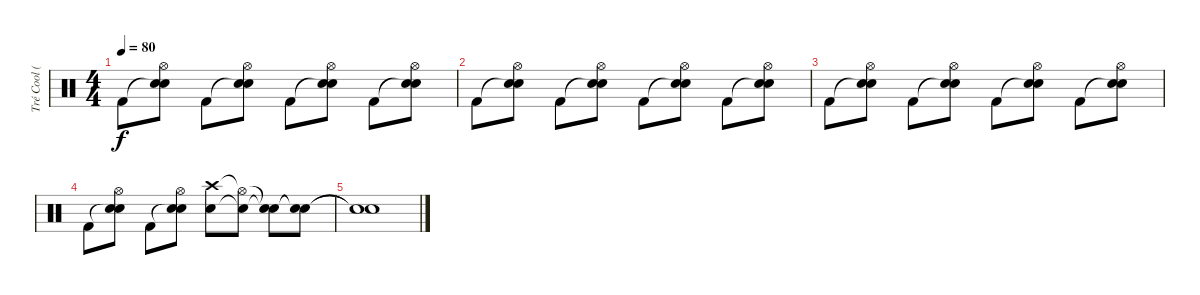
\track ("Tré Cool (Drums)" "Tré Cool (") {instrument percussion}
\staff {score}
\articulation defaults
\ts (4 4)
\tempo 80
\clef neutral
\ks c "Kick (hit) 2".8{dy f}
("Snare (hit)"{t} "Electric Snare (hit)" "Hi-Hat (open)").8 "Kick (hit) 2".8 ("Snare (hit)"{t} "Electric Snare (hit)" "Hi-Hat (open)").8 "Kick (hit) 2".8 ("Snare (hit)"{t} "Electric Snare (hit)" "Hi-Hat (open)").8 "Kick (hit) 2".8 ("Snare (hit)"{t} "Electric Snare (hit)" "Hi-Hat (open)").8 |
"Kick (hit) 2".8 ("Snare (hit)"{t} "Electric Snare (hit)" "Hi-Hat (open)").8 "Kick (hit) 2".8 ("Snare (hit)"{t} "Electric Snare (hit)" "Hi-Hat (open)").8 "Kick (hit) 2".8 ("Snare (hit)"{t} "Electric Snare (hit)" "Hi-Hat (open)").8 "Kick (hit) 2".8 ("Snare (hit)"{t} "Electric Snare (hit)" "Hi-Hat (open)").8 |
"Kick (hit) 2".8 ("Snare (hit)"{t} "Electric Snare (hit)" "Hi-Hat (open)").8 "Kick (hit) 2".8 ("Snare (hit)"{t} "Electric Snare (hit)" "Hi-Hat (open)").8 "Kick (hit) 2".8 ("Snare (hit)"{t} "Electric Snare (hit)" "Hi-Hat (open)").8 "Kick (hit) 2".8 ("Snare (hit)"{t} "Electric Snare (hit)" "Hi-Hat (open)").8 |
"Kick (hit) 2".8 ("Snare (hit)"{t} "Electric Snare (hit)" "Hi-Hat (open)").8 "Kick (hit) 2".8 ("Snare (hit)"{t} "Electric Snare (hit)" "Hi-Hat (open)").8 ("Electric Snare (hit)" "Crash high (hit)").8 ("Electric Snare (hit)"{t} "Hi-Hat (open)"{t}).8 ("Snare (hit)"{t} "Snare (hit)"{t}).8 ("Snare (hit)"{t} "Snare (hit)"{t}).8 |
("Snare (hit)"{t} "Snare (hit)"{t}).1
